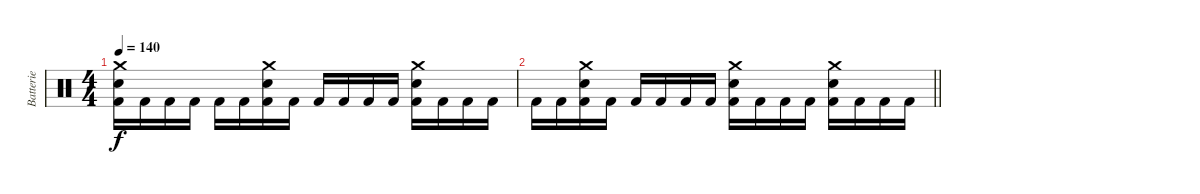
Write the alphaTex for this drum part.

\track ("Batterie" "Batterie") {instrument percussion}
\staff {score}
\articulation defaults
\ts (4 4)
\tempo 140
\clef neutral
\ks c
("Crash medium (hit)" "Electric Snare (hit)" "Kick (hit) 2").16{dy f} "Kick (hit) 2".16 "Kick (hit) 2".16 "Kick (hit) 2".16 "Kick (hit) 2".16 "Kick (hit) 2".16 ("Crash medium (hit)" "Electric Snare (hit)" "Kick (hit) 2").16 "Kick (hit) 2".16 "Kick (hit) 2".16 "Kick (hit) 2".16 "Kick (hit) 2".16 "Kick (hit) 2".16 ("Crash medium (hit)" "Electric Snare (hit)" "Kick (hit) 2").16 "Kick (hit) 2".16 "Kick (hit) 2".16 "Kick (hit) 2".16 |
\barLineRight lightlight "Kick (hit) 2".16 "Kick (hit) 2".16
("Crash medium (hit)" "Electric Snare (hit)" "Kick (hit) 2").16 "Kick (hit) 2".16 "Kick (hit) 2".16 "Kick (hit) 2".16 "Kick (hit) 2".16 "Kick (hit) 2".16 ("Crash medium (hit)" "Electric Snare (hit)" "Kick (hit) 2").16 "Kick (hit) 2".16 "Kick (hit) 2".16 "Kick (hit) 2".16 ("Crash medium (hit)" "Electric Snare (hit)" "Kick (hit) 2").16 "Kick (hit) 2".16 "Kick (hit) 2".16 "Kick (hit) 2".16
